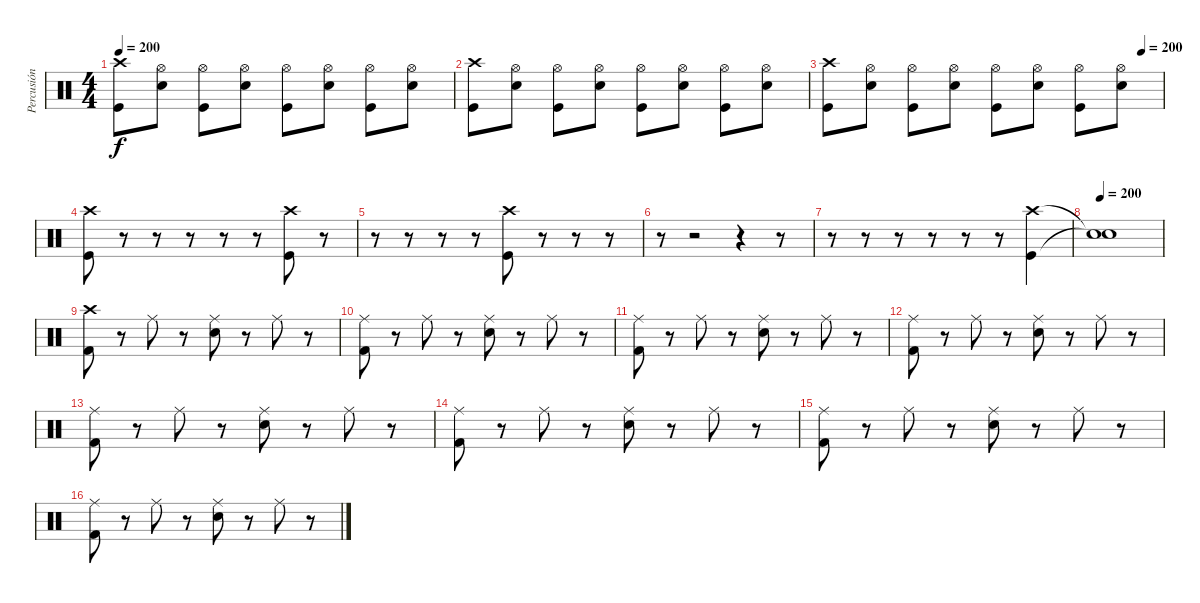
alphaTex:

\track ("Percusión" "Percusión") {instrument percussion}
\staff {score}
\articulation defaults
\ts (4 4)
\tempo 200
\clef neutral
\ks c
("Crash high (hit)" "Kick (hit)").8{dy f} ("Hi-Hat (open)" "Snare (hit) 2").8 ("Hi-Hat (open)" "Kick (hit)").8 ("Hi-Hat (open)" "Snare (hit) 2").8 ("Hi-Hat (open)" "Kick (hit)").8 ("Hi-Hat (open)" "Snare (hit) 2").8 ("Hi-Hat (open)" "Kick (hit)").8 ("Hi-Hat (open)" "Snare (hit) 2").8 |
("Crash high (hit)" "Kick (hit)").8 ("Hi-Hat (open)" "Snare (hit) 2").8 ("Hi-Hat (open)" "Kick (hit)").8 ("Hi-Hat (open)" "Snare (hit) 2").8 ("Hi-Hat (open)" "Kick (hit)").8 ("Hi-Hat (open)" "Snare (hit) 2").8 ("Hi-Hat (open)" "Kick (hit)").8 ("Hi-Hat (open)" "Snare (hit) 2").8 |
\tempo (200 0.9375)
("Crash high (hit)" "Kick (hit)").8 ("Hi-Hat (open)" "Snare (hit) 2").8 ("Hi-Hat (open)" "Kick (hit)").8 ("Hi-Hat (open)" "Snare (hit) 2").8 ("Hi-Hat (open)" "Kick (hit)").8 ("Hi-Hat (open)" "Snare (hit) 2").8 ("Hi-Hat (open)" "Kick (hit)").8 ("Hi-Hat (open)" "Snare (hit) 2").8 |
("Kick (hit)" "Crash high (hit)").8 r.8 r.8 r.8 r.8 r.8 ("Kick (hit)" "Crash high (hit)").8 r.8 |
r.8 r.8 r.8 r.8 ("Crash high (hit)" "Kick (hit)").8 r.8 r.8 r.8 |
r.8 r.2 r.4 r.8 |
r.8 r.8 r.8 r.8 r.8 r.8 ("Kick (hit)" "Crash high (hit)").4 |
\tempo 200
("Snare (hit)"{t} "Snare (hit)"{t}).1 |
("Crash high (hit)" "Kick (hit) 2").8 r.8 "Ride (middle)".8 r.8 ("Electric Snare (hit)" "Ride (middle)").8 r.8 "Ride (middle)".8 r.8 |
("Kick (hit) 2" "Ride (middle)").8 r.8 "Ride (middle)".8 r.8 ("Electric Snare (hit)" "Ride (middle)").8 r.8 "Ride (middle)".8 r.8 |
("Kick (hit) 2" "Ride (middle)").8 r.8 "Ride (middle)".8 r.8 ("Electric Snare (hit)" "Ride (middle)").8 r.8 "Ride (middle)".8 r.8 |
("Kick (hit) 2" "Ride (middle)").8 r.8 "Ride (middle)".8 r.8 ("Electric Snare (hit)" "Ride (middle)").8 r.8 "Ride (middle)".8 r.8 |
("Kick (hit) 2" "Ride (middle)").8 r.8 "Ride (middle)".8 r.8 ("Electric Snare (hit)" "Ride (middle)").8 r.8 "Ride (middle)".8 r.8 |
("Kick (hit) 2" "Ride (middle)").8 r.8 "Ride (middle)".8 r.8 ("Electric Snare (hit)" "Ride (middle)").8 r.8 "Ride (middle)".8 r.8 |
("Kick (hit) 2" "Ride (middle)").8 r.8 "Ride (middle)".8 r.8 ("Electric Snare (hit)" "Ride (middle)").8 r.8 "Ride (middle)".8 r.8 |
("Kick (hit) 2" "Ride (middle)").8 r.8 "Ride (middle)".8 r.8 ("Electric Snare (hit)" "Ride (middle)").8 r.8 "Ride (middle)".8 r.8
